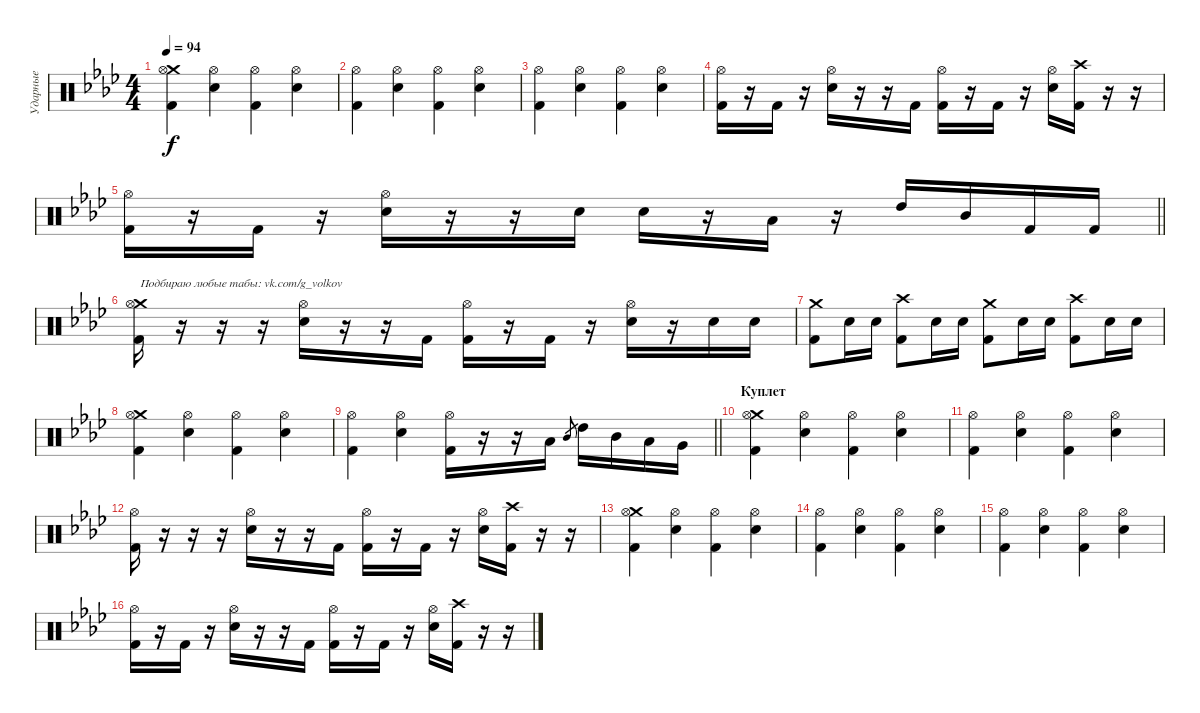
\track ("Ударные" "Ударные") {instrument percussion}
\staff {score}
\articulation defaults
\ts (4 4)
\tempo 94
\clef neutral
\ks fminor
("Crash medium (hit)" "Kick (hit) 2" "Hi-Hat (open)").4{dy f} ("Electric Snare (hit)" "Hi-Hat (open)").4 ("Kick (hit) 2" "Hi-Hat (open)").4 ("Electric Snare (hit)" "Hi-Hat (open)").4 |
("Kick (hit) 2" "Hi-Hat (open)").4 ("Electric Snare (hit)" "Hi-Hat (open)").4 ("Kick (hit) 2" "Hi-Hat (open)").4 ("Electric Snare (hit)" "Hi-Hat (open)").4 |
("Kick (hit) 2" "Hi-Hat (open)").4 ("Electric Snare (hit)" "Hi-Hat (open)").4 ("Kick (hit) 2" "Hi-Hat (open)").4 ("Electric Snare (hit)" "Hi-Hat (open)").4 |
("Kick (hit) 2" "Hi-Hat (open)").16 r.16 "Kick (hit) 2".16 r.16 ("Electric Snare (hit)" "Hi-Hat (open)").16 r.16 r.16 "Kick (hit) 2".16 ("Kick (hit) 2" "Hi-Hat (open)").16 r.16 "Kick (hit) 2".16 r.16 ("Electric Snare (hit)" "Hi-Hat (open)").16 ("Crash high (hit)" "Kick (hit) 2").16 r.16 r.16 |
\barLineRight lightlight
("Kick (hit) 2" "Hi-Hat (open)").16 r.16 "Kick (hit) 2".16 r.16 ("Electric Snare (hit)" "Hi-Hat (open)").16 r.16 r.16 "Electric Snare (hit)".16 "Electric Snare (hit)".16 r.16 "Low Tom (hit)".16 r.16 "High Tom (hit)".16 "Mid Tom (hit)".16 "Kick (hit) 2".16 "Kick (hit) 2".16 |
\section ("" "")
("Crash medium (hit)" "Kick (hit) 2" "Hi-Hat (open)").16{txt "Подбираю любые табы: vk.com/g_volkov"} r.16 r.16 r.16 ("Electric Snare (hit)" "Hi-Hat (open)").16 r.16 r.16 "Kick (hit) 2".16 ("Kick (hit) 2" "Hi-Hat (open)").16 r.16 "Kick (hit) 2".16 r.16 ("Electric Snare (hit)" "Hi-Hat (open)").16 r.16 "Electric Snare (hit)".16 "Electric Snare (hit)".16 |
("Crash medium (hit)" "Kick (hit) 2").8 "Electric Snare (hit)".16 "Electric Snare (hit)".16 ("Crash high (hit)" "Kick (hit) 2").8 "Electric Snare (hit)".16 "Electric Snare (hit)".16 ("Crash medium (hit)" "Kick (hit) 2").8 "Electric Snare (hit)".16 "Electric Snare (hit)".16 ("Crash high (hit)" "Kick (hit) 2").8 "Electric Snare (hit)".16 "Electric Snare (hit)".16 |
("Crash medium (hit)" "Kick (hit) 2" "Hi-Hat (open)").4 ("Electric Snare (hit)" "Hi-Hat (open)").4 ("Kick (hit) 2" "Hi-Hat (open)").4 ("Electric Snare (hit)" "Hi-Hat (open)").4 |
\barLineRight lightlight
("Kick (hit) 2" "Hi-Hat (open)").4 ("Electric Snare (hit)" "Hi-Hat (open)").4 ("Kick (hit) 2" "Hi-Hat (open)").16 r.16 r.16 "Low Tom (hit)".16 "Mid Tom (hit)".8{gr} "High Tom (hit)".16 "Mid Tom (hit)".16 "Low Tom (hit)".16 "Very Low Tom (hit)".16 |
\section ("" "Куплет")
("Crash medium (hit)" "Kick (hit) 2" "Hi-Hat (open)").4 ("Electric Snare (hit)" "Hi-Hat (open)").4 ("Kick (hit) 2" "Hi-Hat (open)").4 ("Electric Snare (hit)" "Hi-Hat (open)").4 |
("Kick (hit) 2" "Hi-Hat (open)").4 ("Electric Snare (hit)" "Hi-Hat (open)").4 ("Kick (hit) 2" "Hi-Hat (open)").4 ("Electric Snare (hit)" "Hi-Hat (open)").4 |
("Kick (hit) 2" "Hi-Hat (open)").16 r.16 r.16 r.16 ("Electric Snare (hit)" "Hi-Hat (open)").16 r.16 r.16 "Kick (hit) 2".16 ("Kick (hit) 2" "Hi-Hat (open)").16 r.16 "Kick (hit) 2".16 r.16 ("Electric Snare (hit)" "Hi-Hat (open)").16 ("Crash high (hit)" "Kick (hit) 2").16 r.16 r.16 |
("Crash medium (hit)" "Kick (hit) 2" "Hi-Hat (open)").4 ("Electric Snare (hit)" "Hi-Hat (open)").4 ("Kick (hit) 2" "Hi-Hat (open)").4 ("Electric Snare (hit)" "Hi-Hat (open)").4 |
("Kick (hit) 2" "Hi-Hat (open)").4 ("Electric Snare (hit)" "Hi-Hat (open)").4 ("Kick (hit) 2" "Hi-Hat (open)").4 ("Electric Snare (hit)" "Hi-Hat (open)").4 |
("Kick (hit) 2" "Hi-Hat (open)").4 ("Electric Snare (hit)" "Hi-Hat (open)").4 ("Kick (hit) 2" "Hi-Hat (open)").4 ("Electric Snare (hit)" "Hi-Hat (open)").4 |
("Kick (hit) 2" "Hi-Hat (open)").16 r.16 "Kick (hit) 2".16 r.16 ("Electric Snare (hit)" "Hi-Hat (open)").16 r.16 r.16 "Kick (hit) 2".16 ("Kick (hit) 2" "Hi-Hat (open)").16 r.16 "Kick (hit) 2".16 r.16 ("Electric Snare (hit)" "Hi-Hat (open)").16 ("Crash high (hit)" "Kick (hit) 2").16 r.16 r.16
